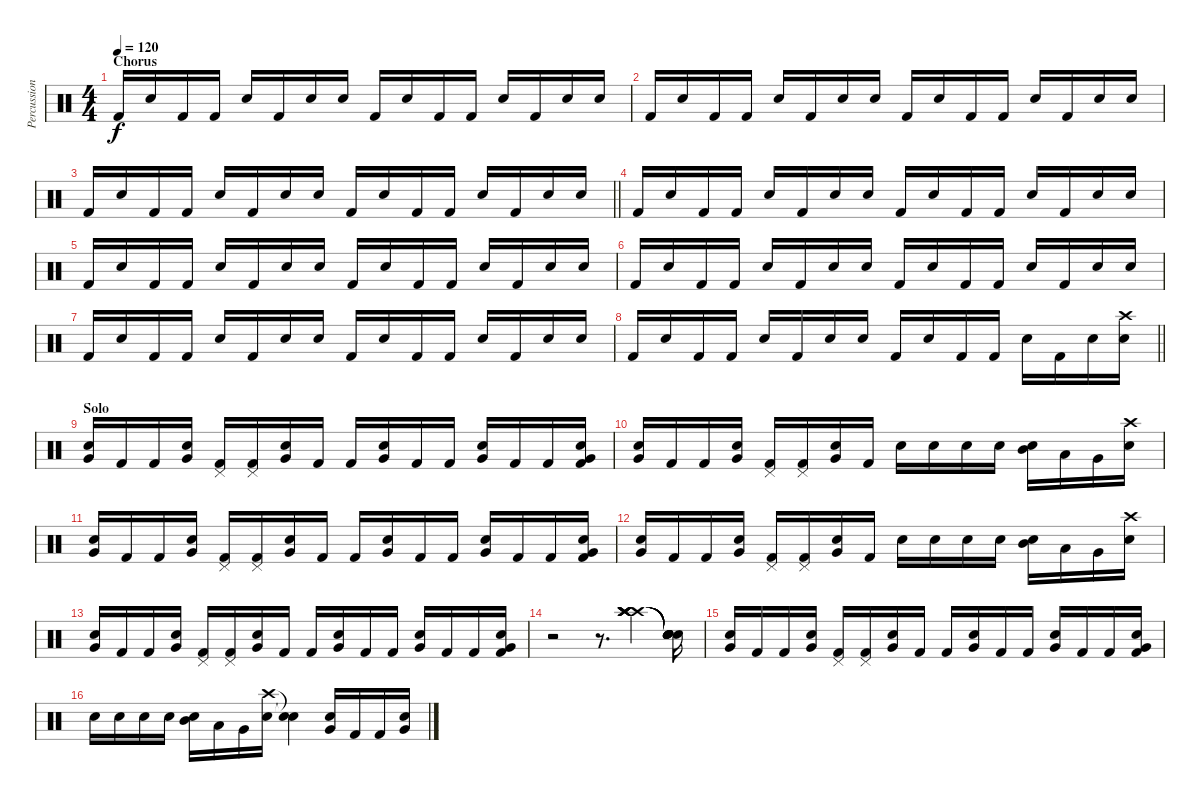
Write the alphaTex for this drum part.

\track ("Percussion" "Percussion") {instrument percussion}
\staff {score}
\articulation defaults
\ts (4 4)
\section ("" "Chorus")
\tempo 120
\clef neutral
\ks c "Kick (hit) 2".16{dy f} "Snare (hit) 2".16 "Kick (hit) 2".16 "Kick (hit) 2".16 "Snare (hit) 2".16 "Kick (hit) 2".16 "Snare (hit) 2".16 "Snare (hit) 2".16 "Kick (hit) 2".16 "Snare (hit) 2".16 "Kick (hit) 2".16 "Kick (hit) 2".16 "Snare (hit) 2".16 "Kick (hit) 2".16 "Snare (hit) 2".16 "Snare (hit) 2".16
|
"Kick (hit) 2".16 "Snare (hit) 2".16 "Kick (hit) 2".16 "Kick (hit) 2".16 "Snare (hit) 2".16 "Kick (hit) 2".16 "Snare (hit) 2".16 "Snare (hit) 2".16 "Kick (hit) 2".16 "Snare (hit) 2".16 "Kick (hit) 2".16 "Kick (hit) 2".16 "Snare (hit) 2".16 "Kick (hit) 2".16 "Snare (hit) 2".16 "Snare (hit) 2".16 |
\barLineRight lightlight "Kick (hit) 2".16 "Snare (hit) 2".16 "Kick (hit) 2".16 "Kick (hit) 2".16 "Snare (hit) 2".16 "Kick (hit) 2".16 "Snare (hit) 2".16 "Snare (hit) 2".16 "Kick (hit) 2".16 "Snare (hit) 2".16 "Kick (hit) 2".16 "Kick (hit) 2".16 "Snare (hit) 2".16 "Kick (hit) 2".16 "Snare (hit) 2".16 "Snare (hit) 2".16
|
"Kick (hit) 2".16 "Snare (hit) 2".16 "Kick (hit) 2".16 "Kick (hit) 2".16 "Snare (hit) 2".16 "Kick (hit) 2".16 "Snare (hit) 2".16 "Snare (hit) 2".16 "Kick (hit) 2".16 "Snare (hit) 2".16 "Kick (hit) 2".16 "Kick (hit) 2".16 "Snare (hit) 2".16 "Kick (hit) 2".16 "Snare (hit) 2".16 "Snare (hit) 2".16 |
"Kick (hit) 2".16 "Snare (hit) 2".16 "Kick (hit) 2".16 "Kick (hit) 2".16 "Snare (hit) 2".16 "Kick (hit) 2".16 "Snare (hit) 2".16 "Snare (hit) 2".16 "Kick (hit) 2".16 "Snare (hit) 2".16 "Kick (hit) 2".16 "Kick (hit) 2".16 "Snare (hit) 2".16 "Kick (hit) 2".16 "Snare (hit) 2".16 "Snare (hit) 2".16 |
"Kick (hit) 2".16 "Snare (hit) 2".16 "Kick (hit) 2".16 "Kick (hit) 2".16 "Snare (hit) 2".16 "Kick (hit) 2".16 "Snare (hit) 2".16 "Snare (hit) 2".16 "Kick (hit) 2".16 "Snare (hit) 2".16 "Kick (hit) 2".16 "Kick (hit) 2".16 "Snare (hit) 2".16 "Kick (hit) 2".16 "Snare (hit) 2".16 "Snare (hit) 2".16 |
"Kick (hit) 2".16 "Snare (hit) 2".16 "Kick (hit) 2".16 "Kick (hit) 2".16 "Snare (hit) 2".16 "Kick (hit) 2".16 "Snare (hit) 2".16 "Snare (hit) 2".16 "Kick (hit) 2".16 "Snare (hit) 2".16 "Kick (hit) 2".16 "Kick (hit) 2".16 "Snare (hit) 2".16 "Kick (hit) 2".16 "Snare (hit) 2".16 "Snare (hit) 2".16 |
\barLineRight lightlight "Kick (hit) 2".16 "Snare (hit) 2".16 "Kick (hit) 2".16 "Kick (hit) 2".16 "Snare (hit) 2".16 "Kick (hit) 2".16 "Snare (hit) 2".16 "Snare (hit) 2".16 "Kick (hit) 2".16 "Snare (hit) 2".16 "Kick (hit) 2".16 "Kick (hit) 2".16 "Snare (hit) 2".16 "Kick (hit) 2".16 "Snare (hit) 2".16
("Crash high (hit)" "Snare (hit) 2").16 |
\section ("" "Solo")
("Very Low Tom (hit)" "Snare (hit) 2").16 "Kick (hit) 2".16 "Kick (hit) 2".16 ("Very Low Tom (hit)" "Snare (hit) 2").16 ("Pedal Hi-Hat (hit)" "Kick (hit) 2").16 ("Pedal Hi-Hat (hit)" "Kick (hit) 2").16 ("Very Low Tom (hit)" "Snare (hit) 2").16 "Kick (hit) 2".16 "Kick (hit) 2".16 ("Very Low Tom (hit)" "Snare (hit) 2").16 "Kick (hit) 2".16 "Kick (hit) 2".16 ("Very Low Tom (hit)" "Snare (hit) 2").16 "Kick (hit) 2".16 "Kick (hit) 2".16 ("Kick (hit) 2" "Very Low Tom (hit)" "Snare (hit) 2").16 |
("Very Low Tom (hit)" "Snare (hit) 2").16 "Kick (hit) 2".16 "Kick (hit) 2".16 ("Very Low Tom (hit)" "Snare (hit) 2").16 ("Pedal Hi-Hat (hit)" "Kick (hit) 2").16 ("Pedal Hi-Hat (hit)" "Kick (hit) 2").16 ("Very Low Tom (hit)" "Snare (hit) 2").16 "Kick (hit) 2".16 "Snare (hit) 2".16 "Snare (hit) 2".16 "Snare (hit) 2".16 "Snare (hit) 2".16 ("Snare (hit) 2" "Mid Tom (hit)").16 "Low Tom (hit)".16 "Very Low Tom (hit)".16 ("Crash high (hit)" "Snare (hit) 2").16 |
("Very Low Tom (hit)" "Snare (hit) 2").16 "Kick (hit) 2".16 "Kick (hit) 2".16 ("Very Low Tom (hit)" "Snare (hit) 2").16 ("Pedal Hi-Hat (hit)" "Kick (hit) 2").16 ("Pedal Hi-Hat (hit)" "Kick (hit) 2").16 ("Very Low Tom (hit)" "Snare (hit) 2").16 "Kick (hit) 2".16 "Kick (hit) 2".16 ("Very Low Tom (hit)" "Snare (hit) 2").16 "Kick (hit) 2".16 "Kick (hit) 2".16 ("Very Low Tom (hit)" "Snare (hit) 2").16 "Kick (hit) 2".16 "Kick (hit) 2".16 ("Kick (hit) 2" "Very Low Tom (hit)" "Snare (hit) 2").16 |
("Very Low Tom (hit)" "Snare (hit) 2").16 "Kick (hit) 2".16 "Kick (hit) 2".16 ("Very Low Tom (hit)" "Snare (hit) 2").16 ("Pedal Hi-Hat (hit)" "Kick (hit) 2").16 ("Pedal Hi-Hat (hit)" "Kick (hit) 2").16 ("Very Low Tom (hit)" "Snare (hit) 2").16 "Kick (hit) 2".16 "Snare (hit) 2".16 "Snare (hit) 2".16 "Snare (hit) 2".16 "Snare (hit) 2".16 ("Snare (hit) 2" "Mid Tom (hit)").16 "Low Tom (hit)".16 "Very Low Tom (hit)".16 ("Crash high (hit)" "Snare (hit) 2").16 |
("Very Low Tom (hit)" "Snare (hit) 2").16 "Kick (hit) 2".16 "Kick (hit) 2".16 ("Very Low Tom (hit)" "Snare (hit) 2").16 ("Pedal Hi-Hat (hit)" "Kick (hit) 2").16 ("Pedal Hi-Hat (hit)" "Kick (hit) 2").16 ("Very Low Tom (hit)" "Snare (hit) 2").16 "Kick (hit) 2".16 "Kick (hit) 2".16 ("Very Low Tom (hit)" "Snare (hit) 2").16 "Kick (hit) 2".16 "Kick (hit) 2".16 ("Very Low Tom (hit)" "Snare (hit) 2").16 "Kick (hit) 2".16 "Kick (hit) 2".16 ("Kick (hit) 2" "Very Low Tom (hit)" "Snare (hit) 2").16 |
r.2 r.8{d} ("Crash high (hit)" "Crash high (hit)" "Crash high (hit)" "Crash high (hit)" "Crash high (hit)" "Crash high (hit)").4 ("Snare (hit)"{t} "Snare (hit)"{t} "Snare (hit)"{t} "Snare (hit)"{t} "Snare (hit)"{t} "Snare (hit)"{t}).16 |
("Very Low Tom (hit)" "Snare (hit) 2").16 "Kick (hit) 2".16 "Kick (hit) 2".16 ("Very Low Tom (hit)" "Snare (hit) 2").16 ("Pedal Hi-Hat (hit)" "Kick (hit) 2").16 ("Pedal Hi-Hat (hit)" "Kick (hit) 2").16 ("Very Low Tom (hit)" "Snare (hit) 2").16 "Kick (hit) 2".16 "Kick (hit) 2".16 ("Very Low Tom (hit)" "Snare (hit) 2").16 "Kick (hit) 2".16 "Kick (hit) 2".16 ("Very Low Tom (hit)" "Snare (hit) 2").16 "Kick (hit) 2".16 "Kick (hit) 2".16 ("Kick (hit) 2" "Very Low Tom (hit)" "Snare (hit) 2").16 |
"Snare (hit) 2".16 "Snare (hit) 2".16 "Snare (hit) 2".16 "Snare (hit) 2".16 ("Snare (hit) 2" "Mid Tom (hit)").16 "Low Tom (hit)".16 "Very Low Tom (hit)".16 ("Crash high (hit)" "Snare (hit) 2").16 ("Snare (hit)"{t} "Snare (hit)"{t}).4 ("Very Low Tom (hit)" "Snare (hit) 2").16 "Kick (hit) 2".16 "Kick (hit) 2".16 ("Very Low Tom (hit)" "Snare (hit) 2").16
